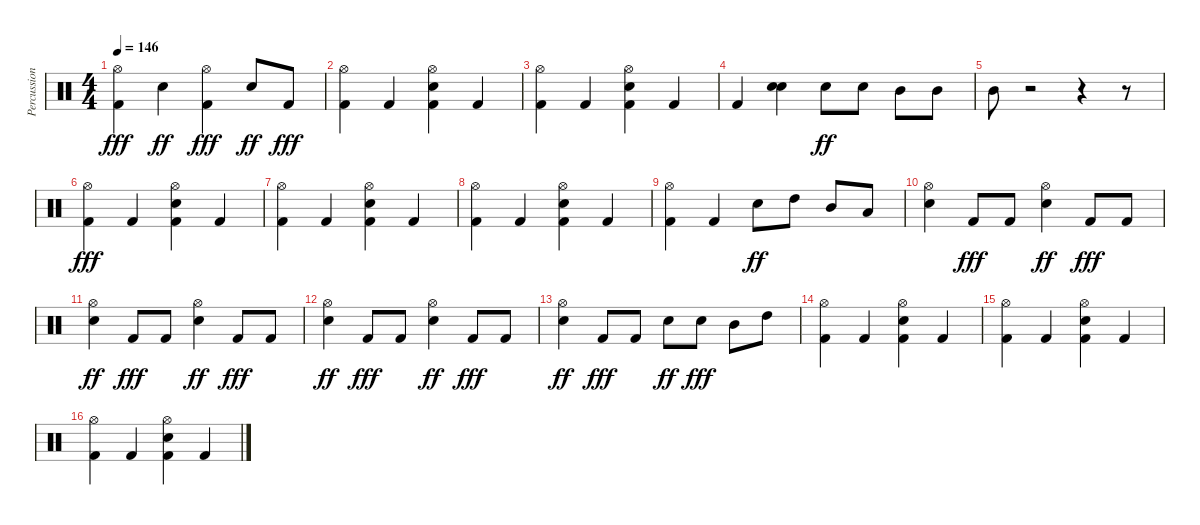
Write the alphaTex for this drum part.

\track ("Percussions" "Percussion") {instrument percussion}
\staff {score}
\articulation defaults
\ts (4 4)
\tempo 146
\clef neutral
\ks c
("Hi-Hat (open)" "Kick (hit) 2").4{dy fff} "Snare (hit) 2".4{dy ff} ("Hi-Hat (open)" "Kick (hit) 2").4{dy fff} "Snare (hit) 2".8{dy ff} "Kick (hit) 2".8{dy fff} |
("Hi-Hat (open)" "Kick (hit) 2").4 "Kick (hit) 2".4 ("Hi-Hat (open)" "Snare (hit) 2" "Kick (hit) 2").4 "Kick (hit) 2".4 |
("Hi-Hat (open)" "Kick (hit) 2").4 "Kick (hit) 2".4 ("Hi-Hat (open)" "Snare (hit) 2" "Kick (hit) 2").4 "Kick (hit) 2".4 |
"Kick (hit) 2".4 ("Snare (hit) 2" "Snare (hit) 2").4{bd 480} "Snare (hit) 2".8{dy ff} "Snare (hit) 2".8 "Mid Tom (hit)".8 "Mid Tom (hit)".8 |
"Mid Tom (hit)".8 r.2 r.4 r.8 |
("Hi-Hat (open)" "Kick (hit) 2").4{dy fff} "Kick (hit) 2".4 ("Hi-Hat (open)" "Snare (hit) 2" "Kick (hit) 2").4 "Kick (hit) 2".4 |
("Hi-Hat (open)" "Kick (hit) 2").4 "Kick (hit) 2".4 ("Hi-Hat (open)" "Snare (hit) 2" "Kick (hit) 2").4 "Kick (hit) 2".4 |
("Hi-Hat (open)" "Kick (hit) 2").4 "Kick (hit) 2".4 ("Hi-Hat (open)" "Snare (hit) 2" "Kick (hit) 2").4 "Kick (hit) 2".4 |
("Hi-Hat (open)" "Kick (hit) 2").4 "Kick (hit) 2".4 "Snare (hit) 2".8{dy ff} "High Tom (hit)".8 "Mid Tom (hit)".8 "Low Tom (hit)".8 |
("Hi-Hat (open)" "Snare (hit) 2").4 "Kick (hit) 2".8{dy fff} "Kick (hit) 2".8 ("Hi-Hat (open)" "Snare (hit) 2").4{dy ff} "Kick (hit) 2".8{dy fff} "Kick (hit) 2".8 |
("Hi-Hat (open)" "Snare (hit) 2").4{dy ff} "Kick (hit) 2".8{dy fff} "Kick (hit) 2".8 ("Hi-Hat (open)" "Snare (hit) 2").4{dy ff} "Kick (hit) 2".8{dy fff} "Kick (hit) 2".8 |
("Hi-Hat (open)" "Snare (hit) 2").4{dy ff} "Kick (hit) 2".8{dy fff} "Kick (hit) 2".8 ("Hi-Hat (open)" "Snare (hit) 2").4{dy ff} "Kick (hit) 2".8{dy fff} "Kick (hit) 2".8 |
("Hi-Hat (open)" "Snare (hit) 2").4{dy ff} "Kick (hit) 2".8{dy fff} "Kick (hit) 2".8 "Snare (hit) 2".8{dy ff} "Snare (hit) 2".8{dy fff} "Mid Tom (hit)".8 "High Tom (hit)".8 |
("Hi-Hat (open)" "Kick (hit) 2").4 "Kick (hit) 2".4 ("Hi-Hat (open)" "Snare (hit) 2" "Kick (hit) 2").4 "Kick (hit) 2".4 |
("Hi-Hat (open)" "Kick (hit) 2").4 "Kick (hit) 2".4 ("Hi-Hat (open)" "Snare (hit) 2" "Kick (hit) 2").4 "Kick (hit) 2".4 |
("Hi-Hat (open)" "Kick (hit) 2").4 "Kick (hit) 2".4 ("Hi-Hat (open)" "Snare (hit) 2" "Kick (hit) 2").4 "Kick (hit) 2".4
